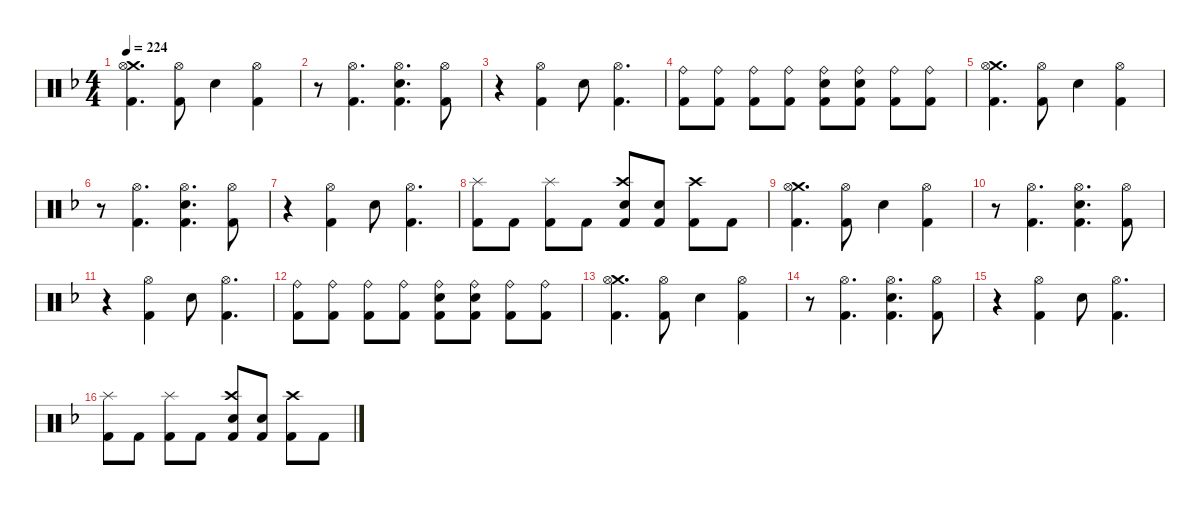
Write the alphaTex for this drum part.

\hideDynamics
\bracketExtendMode nobrackets
\singleTrackTrackNamePolicy hidden
\multiTrackTrackNamePolicy hidden
\firstSystemTrackNameMode fullname
\firstSystemTrackNameOrientation horizontal
\otherSystemsTrackNameOrientation horizontal
\track ("Drumkit" "Drums") {defaultSystemsLayout 4 instrument percussion}
\staff {score}
\articulation defaults
\ts (4 4)
\tempo 224
\clef neutral
\ks dminor
("Crash medium (hit)"{acc forcenatural} "Hi-Hat (open)"{acc forcenatural} "Kick (hit) 2"{acc forcenatural}).4{d dy f beam Down} ("Hi-Hat (open)"{acc forcenatural} "Kick (hit) 2"{acc forcenatural}).8{beam Down} "Snare (hit) 2"{acc forcenatural}.4{beam Down} ("Hi-Hat (open)"{acc forcenatural} "Kick (hit) 2"{acc forcenatural}).4{beam Down} |
r.8{beam Down} ("Hi-Hat (open)"{acc forcenatural} "Kick (hit) 2"{acc forcenatural}).4{d beam Down} ("Hi-Hat (open)"{acc forcenatural} "Snare (hit) 2"{acc forcenatural} "Kick (hit) 2"{acc forcenatural}).4{d beam Down} ("Hi-Hat (open)"{acc forcenatural} "Kick (hit) 2"{acc forcenatural}).8{beam Down} |
r.4{beam Down} ("Hi-Hat (open)"{acc forcenatural} "Kick (hit) 2"{acc forcenatural}).4{beam Down} "Snare (hit) 2"{acc forcenatural}.8{beam Down} ("Hi-Hat (open)"{acc forcenatural} "Kick (hit) 2"{acc forcenatural}).4{d beam Down} |
("Ride (bell)"{acc forcenatural} "Kick (hit) 2"{acc forcenatural}).8{beam Down} ("Ride (bell)"{acc forcenatural} "Kick (hit) 2"{acc forcenatural}).8{beam Down} ("Ride (bell)"{acc forcenatural} "Kick (hit) 2"{acc forcenatural}).8{dy mp beam Down} ("Ride (bell)"{acc forcenatural} "Kick (hit) 2"{acc forcenatural}).8{beam Down} ("Ride (bell)"{acc forcenatural} "Snare (hit) 2"{acc forcenatural} "Kick (hit) 2"{acc forcenatural}).8{dy f beam Down} ("Ride (bell)"{acc forcenatural} "Snare (hit) 2"{acc forcenatural} "Kick (hit) 2"{acc forcenatural}).8{beam Down} ("Ride (bell)"{acc forcenatural} "Kick (hit) 2"{acc forcenatural}).8{dy mp beam Down} ("Ride (bell)"{acc forcenatural} "Kick (hit) 2"{acc forcenatural}).8{beam Down} |
("Crash medium (hit)"{acc forcenatural} "Hi-Hat (open)"{acc forcenatural} "Kick (hit) 2"{acc forcenatural}).4{d dy f beam Down} ("Hi-Hat (open)"{acc forcenatural} "Kick (hit) 2"{acc forcenatural}).8{beam Down} "Snare (hit) 2"{acc forcenatural}.4{beam Down} ("Hi-Hat (open)"{acc forcenatural} "Kick (hit) 2"{acc forcenatural}).4{beam Down} |
r.8{beam Down} ("Hi-Hat (open)"{acc forcenatural} "Kick (hit) 2"{acc forcenatural}).4{d beam Down} ("Hi-Hat (open)"{acc forcenatural} "Snare (hit) 2"{acc forcenatural} "Kick (hit) 2"{acc forcenatural}).4{d beam Down} ("Hi-Hat (open)"{acc forcenatural} "Kick (hit) 2"{acc forcenatural}).8{beam Down} |
r.4{beam Down} ("Hi-Hat (open)"{acc forcenatural} "Kick (hit) 2"{acc forcenatural}).4{beam Down} "Snare (hit) 2"{acc forcenatural}.8{beam Down} ("Hi-Hat (open)"{acc forcenatural} "Kick (hit) 2"{acc forcenatural}).4{d beam Down} |
("Splash (hit)"{acc forcenatural} "Kick (hit) 2"{acc forcenatural}).8{beam Down} "Kick (hit) 2"{acc forcenatural}.8{beam Down} ("Splash (hit)"{acc forcenatural} "Kick (hit) 2"{acc forcenatural}).8{beam Down} "Kick (hit) 2"{acc forcenatural}.8{beam Down} ("Crash high (hit)"{acc forcenatural} "Snare (hit) 2"{acc forcenatural} "Kick (hit) 2"{acc forcenatural}).8{beam Up} ("Snare (hit) 2"{acc forcenatural} "Kick (hit) 2"{acc forcenatural}).8{beam Up} ("Crash high (hit)"{acc forcenatural} "Kick (hit) 2"{acc forcenatural}).8{beam Down} "Kick (hit) 2"{acc forcenatural}.8{beam Down} |
("Crash medium (hit)"{acc forcenatural} "Hi-Hat (open)"{acc forcenatural} "Kick (hit) 2"{acc forcenatural}).4{d beam Down} ("Hi-Hat (open)"{acc forcenatural} "Kick (hit) 2"{acc forcenatural}).8{beam Down} "Snare (hit) 2"{acc forcenatural}.4{beam Down} ("Hi-Hat (open)"{acc forcenatural} "Kick (hit) 2"{acc forcenatural}).4{beam Down} |
r.8{beam Down} ("Hi-Hat (open)"{acc forcenatural} "Kick (hit) 2"{acc forcenatural}).4{d beam Down} ("Hi-Hat (open)"{acc forcenatural} "Snare (hit) 2"{acc forcenatural} "Kick (hit) 2"{acc forcenatural}).4{d beam Down} ("Hi-Hat (open)"{acc forcenatural} "Kick (hit) 2"{acc forcenatural}).8{beam Down} |
r.4{beam Down} ("Hi-Hat (open)"{acc forcenatural} "Kick (hit) 2"{acc forcenatural}).4{beam Down} "Snare (hit) 2"{acc forcenatural}.8{beam Down} ("Hi-Hat (open)"{acc forcenatural} "Kick (hit) 2"{acc forcenatural}).4{d beam Down} |
("Ride (bell)"{acc forcenatural} "Kick (hit) 2"{acc forcenatural}).8{beam Down} ("Ride (bell)"{acc forcenatural} "Kick (hit) 2"{acc forcenatural}).8{beam Down} ("Ride (bell)"{acc forcenatural} "Kick (hit) 2"{acc forcenatural}).8{dy mp beam Down} ("Ride (bell)"{acc forcenatural} "Kick (hit) 2"{acc forcenatural}).8{beam Down} ("Ride (bell)"{acc forcenatural} "Snare (hit) 2"{acc forcenatural} "Kick (hit) 2"{acc forcenatural}).8{dy f beam Down} ("Ride (bell)"{acc forcenatural} "Snare (hit) 2"{acc forcenatural} "Kick (hit) 2"{acc forcenatural}).8{beam Down} ("Ride (bell)"{acc forcenatural} "Kick (hit) 2"{acc forcenatural}).8{dy mp beam Down} ("Ride (bell)"{acc forcenatural} "Kick (hit) 2"{acc forcenatural}).8{beam Down} |
("Crash medium (hit)"{acc forcenatural} "Hi-Hat (open)"{acc forcenatural} "Kick (hit) 2"{acc forcenatural}).4{d dy f beam Down} ("Hi-Hat (open)"{acc forcenatural} "Kick (hit) 2"{acc forcenatural}).8{beam Down} "Snare (hit) 2"{acc forcenatural}.4{beam Down} ("Hi-Hat (open)"{acc forcenatural} "Kick (hit) 2"{acc forcenatural}).4{beam Down} |
r.8{beam Down} ("Hi-Hat (open)"{acc forcenatural} "Kick (hit) 2"{acc forcenatural}).4{d beam Down} ("Hi-Hat (open)"{acc forcenatural} "Snare (hit) 2"{acc forcenatural} "Kick (hit) 2"{acc forcenatural}).4{d beam Down} ("Hi-Hat (open)"{acc forcenatural} "Kick (hit) 2"{acc forcenatural}).8{beam Down} |
r.4{beam Down} ("Hi-Hat (open)"{acc forcenatural} "Kick (hit) 2"{acc forcenatural}).4{beam Down} "Snare (hit) 2"{acc forcenatural}.8{beam Down} ("Hi-Hat (open)"{acc forcenatural} "Kick (hit) 2"{acc forcenatural}).4{d beam Down} |
("Splash (hit)"{acc forcenatural} "Kick (hit) 2"{acc forcenatural}).8{beam Down} "Kick (hit) 2"{acc forcenatural}.8{beam Down} ("Splash (hit)"{acc forcenatural} "Kick (hit) 2"{acc forcenatural}).8{beam Down} "Kick (hit) 2"{acc forcenatural}.8{beam Down} ("Crash high (hit)"{acc forcenatural} "Snare (hit) 2"{acc forcenatural} "Kick (hit) 2"{acc forcenatural}).8{beam Up} ("Snare (hit) 2"{acc forcenatural} "Kick (hit) 2"{acc forcenatural}).8{beam Up} ("Crash high (hit)"{acc forcenatural} "Kick (hit) 2"{acc forcenatural}).8{beam Down} "Kick (hit) 2"{acc forcenatural}.8{beam Down}
